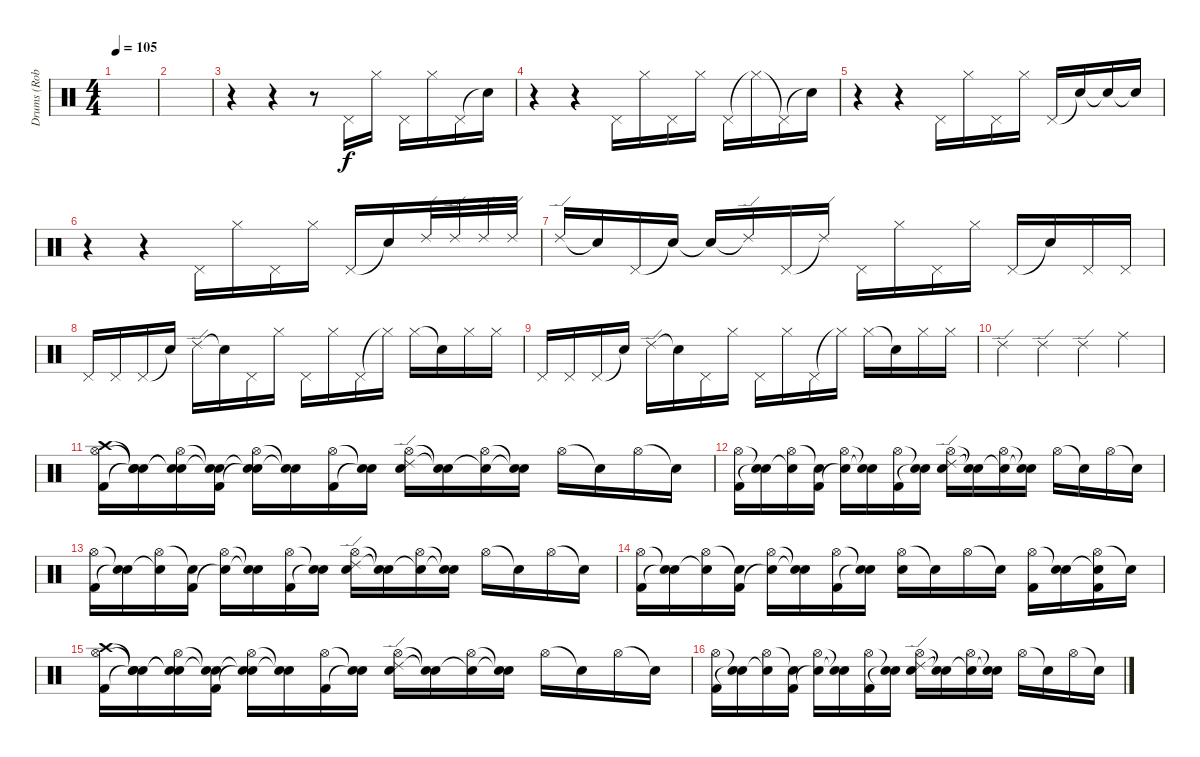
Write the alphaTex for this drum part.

\track ("Drums (Rob Bourdon)" "Drums (Rob") {instrument percussion}
\staff {score}
\articulation defaults
\ts (4 4)
\tempo 105
\clef neutral
\ks c
|
|
r.4 r.4 r.8 "Pedal Hi-Hat (hit)".16 "Hi-Hat (closed)".16 "Pedal Hi-Hat (hit)".16 "Hi-Hat (closed)".16 "Pedal Hi-Hat (hit)".16 "Snare (hit)"{t}.16 |
r.4 r.4 "Pedal Hi-Hat (hit)".16 "Hi-Hat (closed)".16 "Pedal Hi-Hat (hit)".16 "Hi-Hat (closed)".16 "Pedal Hi-Hat (hit)".16 "Hi-Hat (closed)"{t}.16 "Pedal Hi-Hat (hit)"{t}.16 "Snare (hit)"{t}.16 |
r.4 r.4 "Pedal Hi-Hat (hit)".16 "Hi-Hat (closed)".16 "Pedal Hi-Hat (hit)".16 "Hi-Hat (closed)".16 "Pedal Hi-Hat (hit)".16 "Snare (hit)"{t}.16 "Snare (hit)"{t}.16 "Snare (hit)"{t}.16 |
r.4 r.4 "Pedal Hi-Hat (hit)".16 "Hi-Hat (closed)".16 "Pedal Hi-Hat (hit)".16 "Hi-Hat (closed)".16 "Pedal Hi-Hat (hit)".16 "Snare (hit)"{t}.16 "Ride (edge) 2".32 "Ride (edge) 2".32 "Ride (edge) 2".32 "Ride (edge) 2".32 |
"Ride (edge) 2".16 "Snare (hit)"{t}.16 "Pedal Hi-Hat (hit)".16 "Snare (hit)"{t}.16 "Snare (hit)"{t}.16 "Ride (edge) 2"{t}.16 "Pedal Hi-Hat (hit)".16 "Ride (edge) 2"{t}.16 "Pedal Hi-Hat (hit)".16 "Hi-Hat (closed)".16 "Pedal Hi-Hat (hit)".16 "Hi-Hat (closed)".16 "Pedal Hi-Hat (hit)".16 "Snare (hit)"{t}.16 "Pedal Hi-Hat (hit)".16 "Pedal Hi-Hat (hit)".16 |
"Pedal Hi-Hat (hit)".16 "Pedal Hi-Hat (hit)".16 "Pedal Hi-Hat (hit)".16 "Snare (hit)"{t}.16 "Ride (edge) 2".16 "Snare (hit)"{t}.16 "Pedal Hi-Hat (hit)".16 "Hi-Hat (closed)".16 "Pedal Hi-Hat (hit)".16 "Hi-Hat (closed)".16 "Pedal Hi-Hat (hit)".16 "Hi-Hat (closed)"{t}.16 "Hi-Hat (closed)".16 "Snare (hit)"{t}.16 "Hi-Hat (closed)".16 "Hi-Hat (closed)".16 |
"Pedal Hi-Hat (hit)".16 "Pedal Hi-Hat (hit)".16 "Pedal Hi-Hat (hit)".16 "Snare (hit)"{t}.16 "Ride (edge) 2".16 "Snare (hit)"{t}.16 "Pedal Hi-Hat (hit)".16 "Hi-Hat (closed)".16 "Pedal Hi-Hat (hit)".16 "Hi-Hat (closed)".16 "Pedal Hi-Hat (hit)".16 "Hi-Hat (closed)"{t}.16 "Hi-Hat (closed)".16 "Snare (hit)"{t}.16 "Hi-Hat (closed)".16 "Hi-Hat (closed)".16 |
"Ride (edge) 2".4 "Ride (edge) 2".4 "Ride (edge) 2".4 "Ride (middle)".4 |
("Crash high (hit)" "Hi-Hat (open)" "Kick (hit) 2").16 ("Snare (hit)"{t} "Snare (hit)"{t} "Snare (hit)"{t}).16 ("Snare (hit)"{t} "Hi-Hat (open)" "Snare (hit)"{t}).16 ("Snare (hit)"{t} "Snare (hit)"{t} "Kick (hit) 2").16 ("Snare (hit)"{t} "Hi-Hat (open)" "Snare (hit)"{t}).16 ("Snare (hit)"{t} "Snare (hit)"{t}).16 ("Hi-Hat (open)" "Kick (hit) 2").16 ("Snare (hit)"{t} "Snare (hit)"{t}).16 ("Ride (edge) 2" "Hi-Hat (open)" "Electric Snare (hit)").16 ("Snare (hit)"{t} "Snare (hit)"{t}).16 ("Hi-Hat (open)" "Snare (hit)"{t}).16 ("Snare (hit)"{t} "Snare (hit)"{t}).16 "Hi-Hat (open)".16 "Snare (hit)"{t}.16 "Hi-Hat (open)".16 "Snare (hit)"{t}.16 |
("Hi-Hat (open)" "Kick (hit) 2").16 ("Snare (hit)"{t} "Snare (hit)"{t}).16 ("Hi-Hat (open)" "Snare (hit)"{t}).16 ("Snare (hit)"{t} "Kick (hit) 2").16 ("Hi-Hat (open)" "Snare (hit)"{t}).16 ("Snare (hit)"{t} "Snare (hit)"{t}).16 ("Hi-Hat (open)" "Kick (hit) 2").16 ("Snare (hit)"{t} "Snare (hit)"{t}).16 ("Ride (edge) 2" "Hi-Hat (open)" "Electric Snare (hit)").16 ("Snare (hit)"{t} "Snare (hit)"{t}).16 ("Hi-Hat (open)" "Snare (hit)"{t}).16 ("Snare (hit)"{t} "Snare (hit)"{t}).16 "Hi-Hat (open)".16 "Snare (hit)"{t}.16 "Hi-Hat (open)".16 "Snare (hit)"{t}.16 |
("Hi-Hat (open)" "Kick (hit) 2").16 ("Snare (hit)"{t} "Snare (hit)"{t}).16 ("Hi-Hat (open)" "Snare (hit)"{t}).16 ("Snare (hit)"{t} "Kick (hit) 2").16 ("Hi-Hat (open)" "Snare (hit)"{t}).16 ("Snare (hit)"{t} "Snare (hit)"{t}).16 ("Hi-Hat (open)" "Kick (hit) 2").16 ("Snare (hit)"{t} "Snare (hit)"{t}).16 ("Ride (edge) 2" "Hi-Hat (open)" "Electric Snare (hit)").16 ("Snare (hit)"{t} "Snare (hit)"{t}).16 ("Hi-Hat (open)" "Snare (hit)"{t}).16 ("Snare (hit)"{t} "Snare (hit)"{t}).16 "Hi-Hat (open)".16 "Snare (hit)"{t}.16 "Hi-Hat (open)".16 "Snare (hit)"{t}.16 |
("Hi-Hat (open)" "Kick (hit) 2").16 ("Snare (hit)"{t} "Snare (hit)"{t}).16 ("Hi-Hat (open)" "Snare (hit)"{t}).16 ("Snare (hit)"{t} "Kick (hit) 2").16 ("Hi-Hat (open)" "Snare (hit)"{t}).16 ("Snare (hit)"{t} "Snare (hit)"{t}).16 ("Hi-Hat (open)" "Kick (hit) 2").16 ("Snare (hit)"{t} "Snare (hit)"{t}).16 ("Hi-Hat (open)" "Electric Snare (hit)").16 "Snare (hit)"{t}.16 "Hi-Hat (open)".16 "Snare (hit)"{t}.16 ("Hi-Hat (open)" "Kick (hit) 2").16 ("Snare (hit)"{t} "Electric Snare (hit)").16 ("Hi-Hat (open)" "Electric Snare (hit)"{t} "Kick (hit) 2").16 "Snare (hit)"{t}.16 |
("Crash high (hit)" "Hi-Hat (open)" "Kick (hit) 2").16 ("Snare (hit)"{t} "Snare (hit)"{t} "Snare (hit)"{t}).16 ("Snare (hit)"{t} "Hi-Hat (open)" "Snare (hit)"{t}).16 ("Snare (hit)"{t} "Snare (hit)"{t} "Kick (hit) 2").16 ("Snare (hit)"{t} "Hi-Hat (open)" "Snare (hit)"{t}).16 ("Snare (hit)"{t} "Snare (hit)"{t}).16 ("Hi-Hat (open)" "Kick (hit) 2").16 ("Snare (hit)"{t} "Snare (hit)"{t}).16 ("Ride (edge) 2" "Hi-Hat (open)" "Electric Snare (hit)").16 ("Snare (hit)"{t} "Snare (hit)"{t}).16 ("Hi-Hat (open)" "Snare (hit)"{t}).16 ("Snare (hit)"{t} "Snare (hit)"{t}).16 "Hi-Hat (open)".16 "Snare (hit)"{t}.16 "Hi-Hat (open)".16 "Snare (hit)"{t}.16 |
("Hi-Hat (open)" "Kick (hit) 2").16 ("Snare (hit)"{t} "Snare (hit)"{t}).16 ("Hi-Hat (open)" "Snare (hit)"{t}).16 ("Snare (hit)"{t} "Kick (hit) 2").16 ("Hi-Hat (open)" "Snare (hit)"{t}).16 ("Snare (hit)"{t} "Snare (hit)"{t}).16 ("Hi-Hat (open)" "Kick (hit) 2").16 ("Snare (hit)"{t} "Snare (hit)"{t}).16 ("Ride (edge) 2" "Hi-Hat (open)" "Electric Snare (hit)").16 ("Snare (hit)"{t} "Snare (hit)"{t}).16 ("Hi-Hat (open)" "Snare (hit)"{t}).16 ("Snare (hit)"{t} "Snare (hit)"{t}).16 "Hi-Hat (open)".16 "Snare (hit)"{t}.16 "Hi-Hat (open)".16 "Snare (hit)"{t}.16
